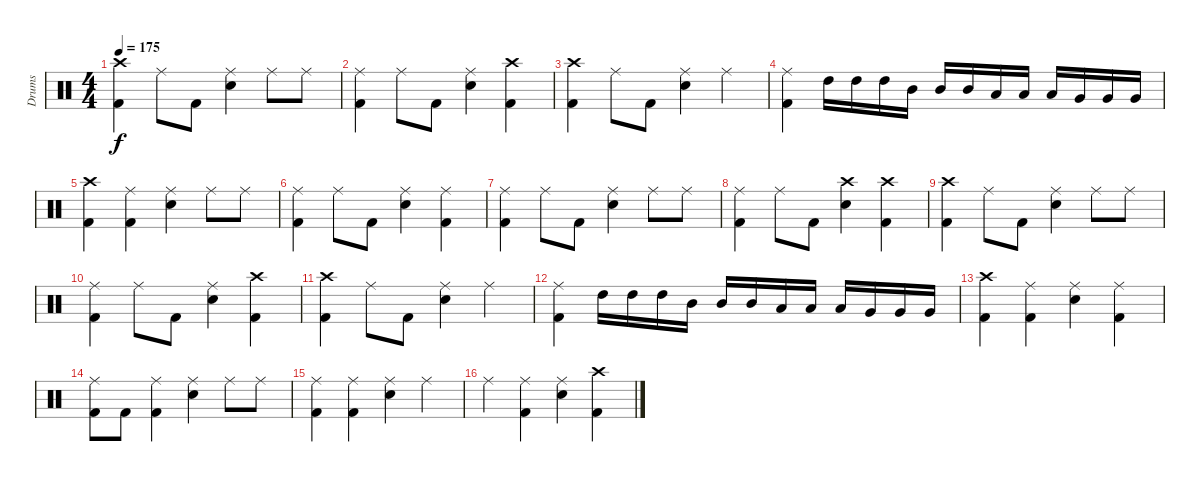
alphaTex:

\track ("Drums" "Drums") {instrument percussion}
\staff {score}
\articulation defaults
\ts (4 4)
\tempo 175
\clef neutral
\ks c
("Crash high (hit)" "Kick (hit) 2").4{dy f} "Ride (middle)".8 "Kick (hit) 2".8 ("Ride (middle)" "Electric Snare (hit)").4 "Ride (middle)".8 "Ride (middle)".8 |
("Ride (middle)" "Kick (hit) 2").4 "Ride (middle)".8 "Kick (hit) 2".8 ("Ride (middle)" "Electric Snare (hit)").4 ("Crash high (hit)" "Kick (hit) 2").4 |
("Crash high (hit)" "Kick (hit) 2").4 "Ride (middle)".8 "Kick (hit) 2".8 ("Ride (middle)" "Electric Snare (hit)").4 "Ride (middle)".4 |
("Ride (middle)" "Kick (hit) 2").4 "High Tom (hit)".16 "High Tom (hit)".16 "High Tom (hit)".16 "Mid Tom (hit)".16 "Mid Tom (hit)".16 "Mid Tom (hit)".16 "Low Tom (hit)".16 "Low Tom (hit)".16 "Low Tom (hit)".16 "Very Low Tom (hit)".16 "Very Low Tom (hit)".16 "Very Low Tom (hit)".16 |
("Crash high (hit)" "Kick (hit) 2").4 ("Ride (middle)" "Kick (hit) 2").4 ("Ride (middle)" "Electric Snare (hit)").4 "Ride (middle)".8 "Ride (middle)".8 |
("Ride (middle)" "Kick (hit) 2").4 "Ride (middle)".8 "Kick (hit) 2".8 ("Ride (middle)" "Electric Snare (hit)").4 ("Ride (middle)" "Kick (hit) 2").4 |
("Ride (middle)" "Kick (hit) 2").4 "Ride (middle)".8 "Kick (hit) 2".8 ("Ride (middle)" "Electric Snare (hit)").4 "Ride (middle)".8 "Ride (middle)".8 |
("Ride (middle)" "Kick (hit) 2").4 "Ride (middle)".8 "Kick (hit) 2".8 ("Crash high (hit)" "Electric Snare (hit)").4 ("Crash high (hit)" "Kick (hit) 2").4 |
("Crash high (hit)" "Kick (hit) 2").4 "Ride (middle)".8 "Kick (hit) 2".8 ("Ride (middle)" "Electric Snare (hit)").4 "Ride (middle)".8 "Ride (middle)".8 |
("Ride (middle)" "Kick (hit) 2").4 "Ride (middle)".8 "Kick (hit) 2".8 ("Ride (middle)" "Electric Snare (hit)").4 ("Crash high (hit)" "Kick (hit) 2").4 |
("Crash high (hit)" "Kick (hit) 2").4 "Ride (middle)".8 "Kick (hit) 2".8 ("Ride (middle)" "Electric Snare (hit)").4 "Ride (middle)".4 |
("Ride (middle)" "Kick (hit) 2").4 "High Tom (hit)".16 "High Tom (hit)".16 "High Tom (hit)".16 "Mid Tom (hit)".16 "Mid Tom (hit)".16 "Mid Tom (hit)".16 "Low Tom (hit)".16 "Low Tom (hit)".16 "Low Tom (hit)".16 "Very Low Tom (hit)".16 "Very Low Tom (hit)".16 "Very Low Tom (hit)".16 |
("Crash high (hit)" "Kick (hit) 2").4 ("Ride (middle)" "Kick (hit) 2").4 ("Ride (middle)" "Electric Snare (hit)").4 ("Ride (middle)" "Kick (hit) 2").4 |
("Ride (middle)" "Kick (hit) 2").8 "Kick (hit) 2".8 ("Ride (middle)" "Kick (hit) 2").4 ("Ride (middle)" "Electric Snare (hit)").4 "Ride (middle)".8 "Ride (middle)".8 |
("Ride (middle)" "Kick (hit) 2").4 ("Ride (middle)" "Kick (hit) 2").4 ("Ride (middle)" "Electric Snare (hit)").4 "Ride (middle)".4 |
"Ride (middle)".4 ("Ride (middle)" "Kick (hit) 2").4 ("Ride (middle)" "Electric Snare (hit)").4 ("Crash high (hit)" "Kick (hit) 2").4
